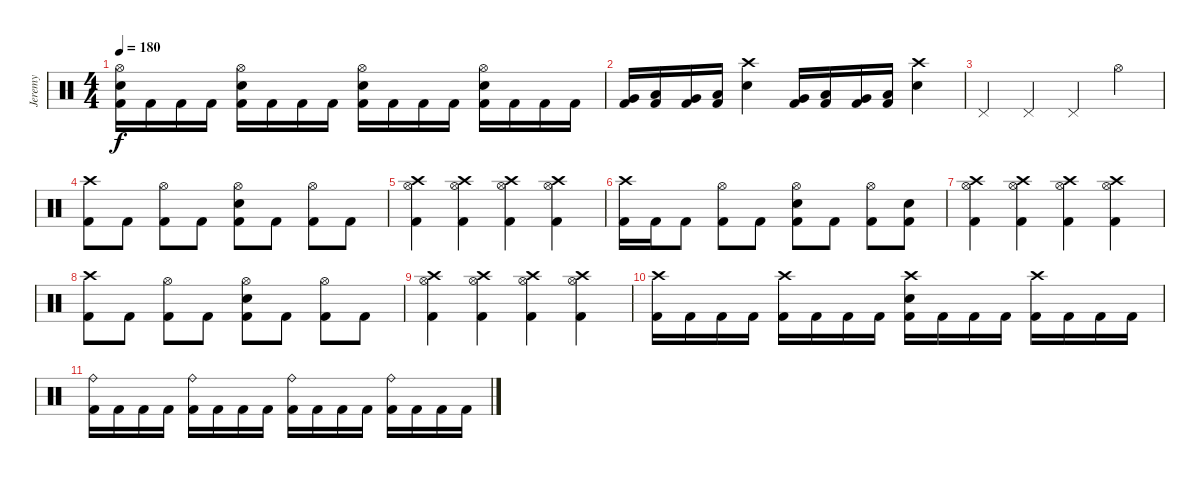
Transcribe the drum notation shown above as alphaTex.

\track ("Jeremy" "Jeremy") {instrument percussion}
\staff {score}
\articulation defaults
\ts (4 4)
\tempo 180
\clef neutral
\ks c
("Hi-Hat (open)" "Snare (hit) 2" "Kick (hit) 2").16{dy f} "Kick (hit) 2".16 "Kick (hit) 2".16 "Kick (hit) 2".16 ("Hi-Hat (open)" "Snare (hit) 2" "Kick (hit) 2").16 "Kick (hit) 2".16 "Kick (hit) 2".16 "Kick (hit) 2".16 ("Hi-Hat (open)" "Snare (hit) 2" "Kick (hit) 2").16 "Kick (hit) 2".16 "Kick (hit) 2".16 "Kick (hit) 2".16 ("Hi-Hat (open)" "Snare (hit) 2" "Kick (hit) 2").16 "Kick (hit) 2".16 "Kick (hit) 2".16 "Kick (hit) 2".16 |
("Very Low Tom (hit)" "Kick (hit) 2").16 ("Low Floor Tom (hit)" "Kick (hit) 2").16 ("Very Low Tom (hit)" "Kick (hit) 2").16 ("Low Floor Tom (hit)" "Kick (hit) 2").16 ("Crash high (hit)" "Snare (hit) 2").4 ("Very Low Tom (hit)" "Kick (hit) 2").16 ("Low Floor Tom (hit)" "Kick (hit) 2").16 ("Very Low Tom (hit)" "Kick (hit) 2").16 ("Low Floor Tom (hit)" "Kick (hit) 2").16 ("Crash high (hit)" "Snare (hit) 2").4 |
"Pedal Hi-Hat (hit)".4 "Pedal Hi-Hat (hit)".4 "Pedal Hi-Hat (hit)".4 "Hi-Hat (open)".4 |
("Crash high (hit)" "Kick (hit) 2").8 "Kick (hit) 2".8 ("Hi-Hat (open)" "Kick (hit) 2").8 "Kick (hit) 2".8 ("Hi-Hat (open)" "Snare (hit) 2" "Kick (hit) 2").8 "Kick (hit) 2".8 ("Hi-Hat (open)" "Kick (hit) 2").8 "Kick (hit) 2".8 |
("Crash high (hit)" "Hi-Hat (open)" "Kick (hit) 2").4 ("Crash high (hit)" "Hi-Hat (open)" "Kick (hit) 2").4 ("Crash high (hit)" "Hi-Hat (open)" "Kick (hit) 2").4 ("Crash high (hit)" "Hi-Hat (open)" "Kick (hit) 2").4 |
("Crash high (hit)" "Kick (hit) 2").16 "Kick (hit) 2".16 "Kick (hit) 2".8 ("Hi-Hat (open)" "Kick (hit) 2").8 "Kick (hit) 2".8 ("Hi-Hat (open)" "Snare (hit) 2" "Kick (hit) 2").8 "Kick (hit) 2".8 ("Hi-Hat (open)" "Kick (hit) 2").8 ("Snare (hit) 2" "Kick (hit) 2").8 |
("Crash high (hit)" "Hi-Hat (open)" "Kick (hit) 2").4 ("Crash high (hit)" "Hi-Hat (open)" "Kick (hit) 2").4 ("Crash high (hit)" "Hi-Hat (open)" "Kick (hit) 2").4 ("Crash high (hit)" "Hi-Hat (open)" "Kick (hit) 2").4 |
("Crash high (hit)" "Kick (hit) 2").8 "Kick (hit) 2".8 ("Hi-Hat (open)" "Kick (hit) 2").8 "Kick (hit) 2".8 ("Hi-Hat (open)" "Snare (hit) 2" "Kick (hit) 2").8 "Kick (hit) 2".8 ("Hi-Hat (open)" "Kick (hit) 2").8 "Kick (hit) 2".8 |
("Crash high (hit)" "Hi-Hat (open)" "Kick (hit) 2").4 ("Crash high (hit)" "Hi-Hat (open)" "Kick (hit) 2").4 ("Crash high (hit)" "Hi-Hat (open)" "Kick (hit) 2").4 ("Crash high (hit)" "Hi-Hat (open)" "Kick (hit) 2").4 |
("Crash high (hit)" "Kick (hit) 2").16 "Kick (hit) 2".16 "Kick (hit) 2".16 "Kick (hit) 2".16 ("Crash high (hit)" "Kick (hit) 2").16 "Kick (hit) 2".16 "Kick (hit) 2".16 "Kick (hit) 2".16 ("Crash high (hit)" "Snare (hit) 2" "Kick (hit) 2").16 "Kick (hit) 2".16 "Kick (hit) 2".16 "Kick (hit) 2".16 ("Crash high (hit)" "Kick (hit) 2").16 "Kick (hit) 2".16 "Kick (hit) 2".16 "Kick (hit) 2".16 |
("Ride (bell)" "Kick (hit) 2").16 "Kick (hit) 2".16 "Kick (hit) 2".16 "Kick (hit) 2".16 ("Ride (bell)" "Kick (hit) 2").16 "Kick (hit) 2".16 "Kick (hit) 2".16 "Kick (hit) 2".16 ("Ride (bell)" "Kick (hit) 2").16 "Kick (hit) 2".16 "Kick (hit) 2".16 "Kick (hit) 2".16 ("Ride (bell)" "Kick (hit) 2").16 "Kick (hit) 2".16 "Kick (hit) 2".16 "Kick (hit) 2".16
